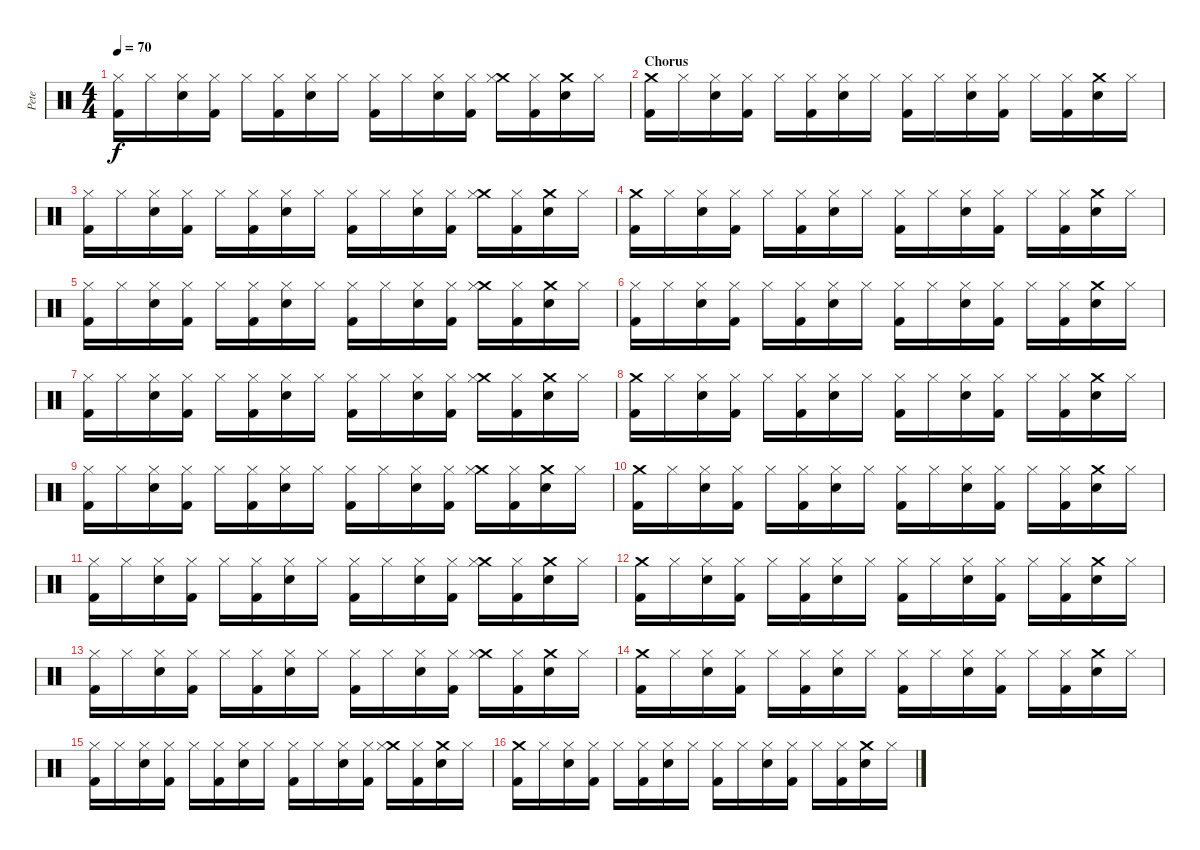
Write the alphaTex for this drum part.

\track ("Pete" "Pete") {instrument percussion}
\staff {score}
\articulation defaults
\ts (4 4)
\tempo 70
\clef neutral
\ks c
("Hi-Hat (closed)" "Kick (hit) 2").16{dy f} "Hi-Hat (closed)".16 ("Hi-Hat (closed)" "Snare (hit) 2").16 ("Hi-Hat (closed)" "Kick (hit) 2").16 "Hi-Hat (closed)".16 ("Hi-Hat (closed)" "Kick (hit) 2").16 ("Hi-Hat (closed)" "Snare (hit) 2").16 "Hi-Hat (closed)".16 ("Hi-Hat (closed)" "Kick (hit) 2").16 "Hi-Hat (closed)".16 ("Hi-Hat (closed)" "Snare (hit) 2").16 ("Hi-Hat (closed)" "Kick (hit) 2").16 ("Crash medium (hit)" "Hi-Hat (closed)").16 ("Hi-Hat (closed)" "Kick (hit) 2").16 ("Crash medium (hit)" "Snare (hit) 2").16 "Hi-Hat (closed)".16 |
\section ("" "Chorus")
("Crash medium (hit)" "Kick (hit) 2").16 "Hi-Hat (closed)".16 ("Hi-Hat (closed)" "Snare (hit) 2").16 ("Hi-Hat (closed)" "Kick (hit) 2").16 "Hi-Hat (closed)".16 ("Hi-Hat (closed)" "Kick (hit) 2").16 ("Hi-Hat (closed)" "Snare (hit) 2").16 "Hi-Hat (closed)".16 ("Hi-Hat (closed)" "Kick (hit) 2").16 "Hi-Hat (closed)".16 ("Hi-Hat (closed)" "Snare (hit) 2").16 ("Hi-Hat (closed)" "Kick (hit) 2").16 "Hi-Hat (closed)".16 ("Hi-Hat (closed)" "Kick (hit) 2").16 ("Crash medium (hit)" "Snare (hit) 2").16 "Hi-Hat (closed)".16 |
("Hi-Hat (closed)" "Kick (hit) 2").16 "Hi-Hat (closed)".16 ("Hi-Hat (closed)" "Snare (hit) 2").16 ("Hi-Hat (closed)" "Kick (hit) 2").16 "Hi-Hat (closed)".16 ("Hi-Hat (closed)" "Kick (hit) 2").16 ("Hi-Hat (closed)" "Snare (hit) 2").16 "Hi-Hat (closed)".16 ("Hi-Hat (closed)" "Kick (hit) 2").16 "Hi-Hat (closed)".16 ("Hi-Hat (closed)" "Snare (hit) 2").16 ("Hi-Hat (closed)" "Kick (hit) 2").16 ("Crash medium (hit)" "Hi-Hat (closed)").16 ("Hi-Hat (closed)" "Kick (hit) 2").16 ("Crash medium (hit)" "Snare (hit) 2").16 "Hi-Hat (closed)".16 |
("Crash medium (hit)" "Kick (hit) 2").16 "Hi-Hat (closed)".16 ("Hi-Hat (closed)" "Snare (hit) 2").16 ("Hi-Hat (closed)" "Kick (hit) 2").16 "Hi-Hat (closed)".16 ("Hi-Hat (closed)" "Kick (hit) 2").16 ("Hi-Hat (closed)" "Snare (hit) 2").16 "Hi-Hat (closed)".16 ("Hi-Hat (closed)" "Kick (hit) 2").16 "Hi-Hat (closed)".16 ("Hi-Hat (closed)" "Snare (hit) 2").16 ("Hi-Hat (closed)" "Kick (hit) 2").16 "Hi-Hat (closed)".16 ("Hi-Hat (closed)" "Kick (hit) 2").16 ("Crash medium (hit)" "Snare (hit) 2").16 "Hi-Hat (closed)".16 |
("Hi-Hat (closed)" "Kick (hit) 2").16 "Hi-Hat (closed)".16 ("Hi-Hat (closed)" "Snare (hit) 2").16 ("Hi-Hat (closed)" "Kick (hit) 2").16 "Hi-Hat (closed)".16 ("Hi-Hat (closed)" "Kick (hit) 2").16 ("Hi-Hat (closed)" "Snare (hit) 2").16 "Hi-Hat (closed)".16 ("Hi-Hat (closed)" "Kick (hit) 2").16 "Hi-Hat (closed)".16 ("Hi-Hat (closed)" "Snare (hit) 2").16 ("Hi-Hat (closed)" "Kick (hit) 2").16 ("Crash medium (hit)" "Hi-Hat (closed)").16 ("Hi-Hat (closed)" "Kick (hit) 2").16 ("Crash medium (hit)" "Snare (hit) 2").16 "Hi-Hat (closed)".16 |
("Hi-Hat (closed)" "Kick (hit) 2").16 "Hi-Hat (closed)".16 ("Hi-Hat (closed)" "Snare (hit) 2").16 ("Hi-Hat (closed)" "Kick (hit) 2").16 "Hi-Hat (closed)".16 ("Hi-Hat (closed)" "Kick (hit) 2").16 ("Hi-Hat (closed)" "Snare (hit) 2").16 "Hi-Hat (closed)".16 ("Hi-Hat (closed)" "Kick (hit) 2").16 "Hi-Hat (closed)".16 ("Hi-Hat (closed)" "Snare (hit) 2").16 ("Hi-Hat (closed)" "Kick (hit) 2").16 "Hi-Hat (closed)".16 ("Hi-Hat (closed)" "Kick (hit) 2").16 ("Crash medium (hit)" "Snare (hit) 2").16 "Hi-Hat (closed)".16 |
("Hi-Hat (closed)" "Kick (hit) 2").16 "Hi-Hat (closed)".16 ("Hi-Hat (closed)" "Snare (hit) 2").16 ("Hi-Hat (closed)" "Kick (hit) 2").16 "Hi-Hat (closed)".16 ("Hi-Hat (closed)" "Kick (hit) 2").16 ("Hi-Hat (closed)" "Snare (hit) 2").16 "Hi-Hat (closed)".16 ("Hi-Hat (closed)" "Kick (hit) 2").16 "Hi-Hat (closed)".16 ("Hi-Hat (closed)" "Snare (hit) 2").16 ("Hi-Hat (closed)" "Kick (hit) 2").16 ("Crash medium (hit)" "Hi-Hat (closed)").16 ("Hi-Hat (closed)" "Kick (hit) 2").16 ("Crash medium (hit)" "Snare (hit) 2").16 "Hi-Hat (closed)".16 |
("Crash medium (hit)" "Kick (hit) 2").16 "Hi-Hat (closed)".16 ("Hi-Hat (closed)" "Snare (hit) 2").16 ("Hi-Hat (closed)" "Kick (hit) 2").16 "Hi-Hat (closed)".16 ("Hi-Hat (closed)" "Kick (hit) 2").16 ("Hi-Hat (closed)" "Snare (hit) 2").16 "Hi-Hat (closed)".16 ("Hi-Hat (closed)" "Kick (hit) 2").16 "Hi-Hat (closed)".16 ("Hi-Hat (closed)" "Snare (hit) 2").16 ("Hi-Hat (closed)" "Kick (hit) 2").16 "Hi-Hat (closed)".16 ("Hi-Hat (closed)" "Kick (hit) 2").16 ("Crash medium (hit)" "Snare (hit) 2").16 "Hi-Hat (closed)".16 |
("Hi-Hat (closed)" "Kick (hit) 2").16 "Hi-Hat (closed)".16 ("Hi-Hat (closed)" "Snare (hit) 2").16 ("Hi-Hat (closed)" "Kick (hit) 2").16 "Hi-Hat (closed)".16 ("Hi-Hat (closed)" "Kick (hit) 2").16 ("Hi-Hat (closed)" "Snare (hit) 2").16 "Hi-Hat (closed)".16 ("Hi-Hat (closed)" "Kick (hit) 2").16 "Hi-Hat (closed)".16 ("Hi-Hat (closed)" "Snare (hit) 2").16 ("Hi-Hat (closed)" "Kick (hit) 2").16 ("Crash medium (hit)" "Hi-Hat (closed)").16 ("Hi-Hat (closed)" "Kick (hit) 2").16 ("Crash medium (hit)" "Snare (hit) 2").16 "Hi-Hat (closed)".16 |
("Crash medium (hit)" "Kick (hit) 2").16 "Hi-Hat (closed)".16 ("Hi-Hat (closed)" "Snare (hit) 2").16 ("Hi-Hat (closed)" "Kick (hit) 2").16 "Hi-Hat (closed)".16 ("Hi-Hat (closed)" "Kick (hit) 2").16 ("Hi-Hat (closed)" "Snare (hit) 2").16 "Hi-Hat (closed)".16 ("Hi-Hat (closed)" "Kick (hit) 2").16 "Hi-Hat (closed)".16 ("Hi-Hat (closed)" "Snare (hit) 2").16 ("Hi-Hat (closed)" "Kick (hit) 2").16 "Hi-Hat (closed)".16 ("Hi-Hat (closed)" "Kick (hit) 2").16 ("Crash medium (hit)" "Snare (hit) 2").16 "Hi-Hat (closed)".16 |
("Hi-Hat (closed)" "Kick (hit) 2").16 "Hi-Hat (closed)".16 ("Hi-Hat (closed)" "Snare (hit) 2").16 ("Hi-Hat (closed)" "Kick (hit) 2").16 "Hi-Hat (closed)".16 ("Hi-Hat (closed)" "Kick (hit) 2").16 ("Hi-Hat (closed)" "Snare (hit) 2").16 "Hi-Hat (closed)".16 ("Hi-Hat (closed)" "Kick (hit) 2").16 "Hi-Hat (closed)".16 ("Hi-Hat (closed)" "Snare (hit) 2").16 ("Hi-Hat (closed)" "Kick (hit) 2").16 ("Crash medium (hit)" "Hi-Hat (closed)").16 ("Hi-Hat (closed)" "Kick (hit) 2").16 ("Crash medium (hit)" "Snare (hit) 2").16 "Hi-Hat (closed)".16 |
("Crash medium (hit)" "Kick (hit) 2").16 "Hi-Hat (closed)".16 ("Hi-Hat (closed)" "Snare (hit) 2").16 ("Hi-Hat (closed)" "Kick (hit) 2").16 "Hi-Hat (closed)".16 ("Hi-Hat (closed)" "Kick (hit) 2").16 ("Hi-Hat (closed)" "Snare (hit) 2").16 "Hi-Hat (closed)".16 ("Hi-Hat (closed)" "Kick (hit) 2").16 "Hi-Hat (closed)".16 ("Hi-Hat (closed)" "Snare (hit) 2").16 ("Hi-Hat (closed)" "Kick (hit) 2").16 "Hi-Hat (closed)".16 ("Hi-Hat (closed)" "Kick (hit) 2").16 ("Crash medium (hit)" "Snare (hit) 2").16 "Hi-Hat (closed)".16 |
("Hi-Hat (closed)" "Kick (hit) 2").16 "Hi-Hat (closed)".16 ("Hi-Hat (closed)" "Snare (hit) 2").16 ("Hi-Hat (closed)" "Kick (hit) 2").16 "Hi-Hat (closed)".16 ("Hi-Hat (closed)" "Kick (hit) 2").16 ("Hi-Hat (closed)" "Snare (hit) 2").16 "Hi-Hat (closed)".16 ("Hi-Hat (closed)" "Kick (hit) 2").16 "Hi-Hat (closed)".16 ("Hi-Hat (closed)" "Snare (hit) 2").16 ("Hi-Hat (closed)" "Kick (hit) 2").16 ("Crash medium (hit)" "Hi-Hat (closed)").16 ("Hi-Hat (closed)" "Kick (hit) 2").16 ("Crash medium (hit)" "Snare (hit) 2").16 "Hi-Hat (closed)".16 |
("Crash medium (hit)" "Kick (hit) 2").16 "Hi-Hat (closed)".16 ("Hi-Hat (closed)" "Snare (hit) 2").16 ("Hi-Hat (closed)" "Kick (hit) 2").16 "Hi-Hat (closed)".16 ("Hi-Hat (closed)" "Kick (hit) 2").16 ("Hi-Hat (closed)" "Snare (hit) 2").16 "Hi-Hat (closed)".16 ("Hi-Hat (closed)" "Kick (hit) 2").16 "Hi-Hat (closed)".16 ("Hi-Hat (closed)" "Snare (hit) 2").16 ("Hi-Hat (closed)" "Kick (hit) 2").16 "Hi-Hat (closed)".16 ("Hi-Hat (closed)" "Kick (hit) 2").16 ("Crash medium (hit)" "Snare (hit) 2").16 "Hi-Hat (closed)".16 |
("Hi-Hat (closed)" "Kick (hit) 2").16 "Hi-Hat (closed)".16 ("Hi-Hat (closed)" "Snare (hit) 2").16 ("Hi-Hat (closed)" "Kick (hit) 2").16 "Hi-Hat (closed)".16 ("Hi-Hat (closed)" "Kick (hit) 2").16 ("Hi-Hat (closed)" "Snare (hit) 2").16 "Hi-Hat (closed)".16 ("Hi-Hat (closed)" "Kick (hit) 2").16 "Hi-Hat (closed)".16 ("Hi-Hat (closed)" "Snare (hit) 2").16 ("Hi-Hat (closed)" "Kick (hit) 2").16 ("Crash medium (hit)" "Hi-Hat (closed)").16 ("Hi-Hat (closed)" "Kick (hit) 2").16 ("Crash medium (hit)" "Snare (hit) 2").16 "Hi-Hat (closed)".16 |
("Crash medium (hit)" "Kick (hit) 2").16 "Hi-Hat (closed)".16 ("Hi-Hat (closed)" "Snare (hit) 2").16 ("Hi-Hat (closed)" "Kick (hit) 2").16 "Hi-Hat (closed)".16 ("Hi-Hat (closed)" "Kick (hit) 2").16 ("Hi-Hat (closed)" "Snare (hit) 2").16 "Hi-Hat (closed)".16 ("Hi-Hat (closed)" "Kick (hit) 2").16 "Hi-Hat (closed)".16 ("Hi-Hat (closed)" "Snare (hit) 2").16 ("Hi-Hat (closed)" "Kick (hit) 2").16 "Hi-Hat (closed)".16 ("Hi-Hat (closed)" "Kick (hit) 2").16 ("Crash medium (hit)" "Snare (hit) 2").16 "Hi-Hat (closed)".16
